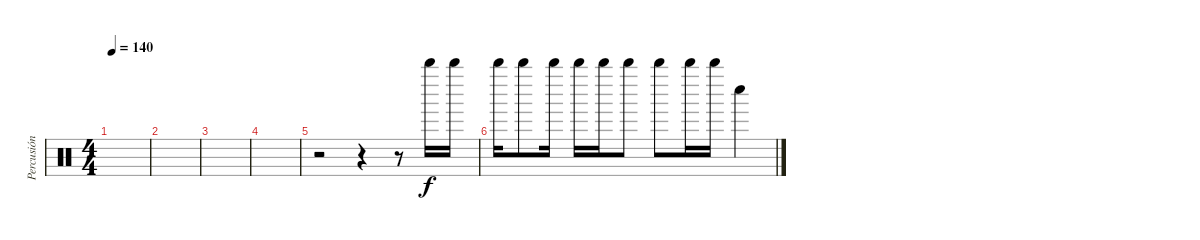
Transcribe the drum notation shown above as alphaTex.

\track ("Percusión Fredy Caldas" "Percusión ") {instrument percussion}
\staff {score}
\articulation defaults
\ts (4 4)
\tempo 140
\clef neutral
\ks c
|
|
|
|
r.2 r.4 r.8 "Whistle high (hit)".16{dy f} "Whistle high (hit)".16 |
"Whistle high (hit)".16 "Whistle high (hit)".8 "Whistle high (hit)".16 "Whistle high (hit)".16 "Whistle high (hit)".16 "Whistle high (hit)".8 "Whistle high (hit)".8 "Whistle high (hit)".16 "Whistle high (hit)".16 "Whistle low (hit)".4
